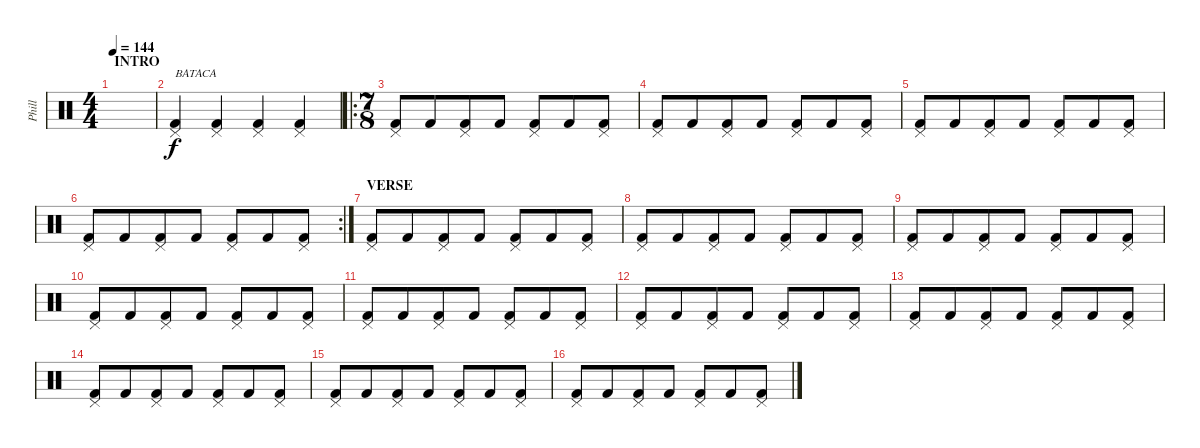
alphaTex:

\track ("Phill" "Phill") {instrument percussion}
\staff {score}
\articulation defaults
\ts (4 4)
\section ("" "INTRO")
\tempo 144
\clef neutral
\ks c
|
("Pedal Hi-Hat (hit)" "Kick (hit) 2").4{txt "BATACA"} ("Pedal Hi-Hat (hit)" "Kick (hit) 2").4 ("Pedal Hi-Hat (hit)" "Kick (hit) 2").4 ("Pedal Hi-Hat (hit)" "Kick (hit) 2").4 |
\ro
\ts (7 8)
("Pedal Hi-Hat (hit)" "Kick (hit) 2").8 "Kick (hit) 2".8 ("Pedal Hi-Hat (hit)" "Kick (hit) 2").8 "Kick (hit) 2".8 ("Pedal Hi-Hat (hit)" "Kick (hit) 2").8 "Kick (hit) 2".8 ("Pedal Hi-Hat (hit)" "Kick (hit) 2").8 |
("Pedal Hi-Hat (hit)" "Kick (hit) 2").8 "Kick (hit) 2".8 ("Pedal Hi-Hat (hit)" "Kick (hit) 2").8 "Kick (hit) 2".8 ("Pedal Hi-Hat (hit)" "Kick (hit) 2").8 "Kick (hit) 2".8 ("Pedal Hi-Hat (hit)" "Kick (hit) 2").8 |
("Pedal Hi-Hat (hit)" "Kick (hit) 2").8 "Kick (hit) 2".8 ("Pedal Hi-Hat (hit)" "Kick (hit) 2").8 "Kick (hit) 2".8 ("Pedal Hi-Hat (hit)" "Kick (hit) 2").8 "Kick (hit) 2".8 ("Pedal Hi-Hat (hit)" "Kick (hit) 2").8 |
\rc 2
("Pedal Hi-Hat (hit)" "Kick (hit) 2").8 "Kick (hit) 2".8 ("Pedal Hi-Hat (hit)" "Kick (hit) 2").8 "Kick (hit) 2".8 ("Pedal Hi-Hat (hit)" "Kick (hit) 2").8 "Kick (hit) 2".8 ("Pedal Hi-Hat (hit)" "Kick (hit) 2").8 |
\section ("" "VERSE")
("Pedal Hi-Hat (hit)" "Kick (hit) 2").8 "Kick (hit) 2".8 ("Pedal Hi-Hat (hit)" "Kick (hit) 2").8 "Kick (hit) 2".8 ("Pedal Hi-Hat (hit)" "Kick (hit) 2").8 "Kick (hit) 2".8 ("Pedal Hi-Hat (hit)" "Kick (hit) 2").8 |
("Pedal Hi-Hat (hit)" "Kick (hit) 2").8 "Kick (hit) 2".8 ("Pedal Hi-Hat (hit)" "Kick (hit) 2").8 "Kick (hit) 2".8 ("Pedal Hi-Hat (hit)" "Kick (hit) 2").8 "Kick (hit) 2".8 ("Pedal Hi-Hat (hit)" "Kick (hit) 2").8 |
("Pedal Hi-Hat (hit)" "Kick (hit) 2").8 "Kick (hit) 2".8 ("Pedal Hi-Hat (hit)" "Kick (hit) 2").8 "Kick (hit) 2".8 ("Pedal Hi-Hat (hit)" "Kick (hit) 2").8 "Kick (hit) 2".8 ("Pedal Hi-Hat (hit)" "Kick (hit) 2").8 |
("Pedal Hi-Hat (hit)" "Kick (hit) 2").8 "Kick (hit) 2".8 ("Pedal Hi-Hat (hit)" "Kick (hit) 2").8 "Kick (hit) 2".8 ("Pedal Hi-Hat (hit)" "Kick (hit) 2").8 "Kick (hit) 2".8 ("Pedal Hi-Hat (hit)" "Kick (hit) 2").8 |
("Pedal Hi-Hat (hit)" "Kick (hit) 2").8 "Kick (hit) 2".8 ("Pedal Hi-Hat (hit)" "Kick (hit) 2").8 "Kick (hit) 2".8 ("Pedal Hi-Hat (hit)" "Kick (hit) 2").8 "Kick (hit) 2".8 ("Pedal Hi-Hat (hit)" "Kick (hit) 2").8 |
("Pedal Hi-Hat (hit)" "Kick (hit) 2").8 "Kick (hit) 2".8 ("Pedal Hi-Hat (hit)" "Kick (hit) 2").8 "Kick (hit) 2".8 ("Pedal Hi-Hat (hit)" "Kick (hit) 2").8 "Kick (hit) 2".8 ("Pedal Hi-Hat (hit)" "Kick (hit) 2").8 |
("Pedal Hi-Hat (hit)" "Kick (hit) 2").8 "Kick (hit) 2".8 ("Pedal Hi-Hat (hit)" "Kick (hit) 2").8 "Kick (hit) 2".8 ("Pedal Hi-Hat (hit)" "Kick (hit) 2").8 "Kick (hit) 2".8 ("Pedal Hi-Hat (hit)" "Kick (hit) 2").8 |
("Pedal Hi-Hat (hit)" "Kick (hit) 2").8 "Kick (hit) 2".8 ("Pedal Hi-Hat (hit)" "Kick (hit) 2").8 "Kick (hit) 2".8 ("Pedal Hi-Hat (hit)" "Kick (hit) 2").8 "Kick (hit) 2".8 ("Pedal Hi-Hat (hit)" "Kick (hit) 2").8 |
("Pedal Hi-Hat (hit)" "Kick (hit) 2").8 "Kick (hit) 2".8 ("Pedal Hi-Hat (hit)" "Kick (hit) 2").8 "Kick (hit) 2".8 ("Pedal Hi-Hat (hit)" "Kick (hit) 2").8 "Kick (hit) 2".8 ("Pedal Hi-Hat (hit)" "Kick (hit) 2").8 |
("Pedal Hi-Hat (hit)" "Kick (hit) 2").8 "Kick (hit) 2".8 ("Pedal Hi-Hat (hit)" "Kick (hit) 2").8 "Kick (hit) 2".8 ("Pedal Hi-Hat (hit)" "Kick (hit) 2").8 "Kick (hit) 2".8 ("Pedal Hi-Hat (hit)" "Kick (hit) 2").8
